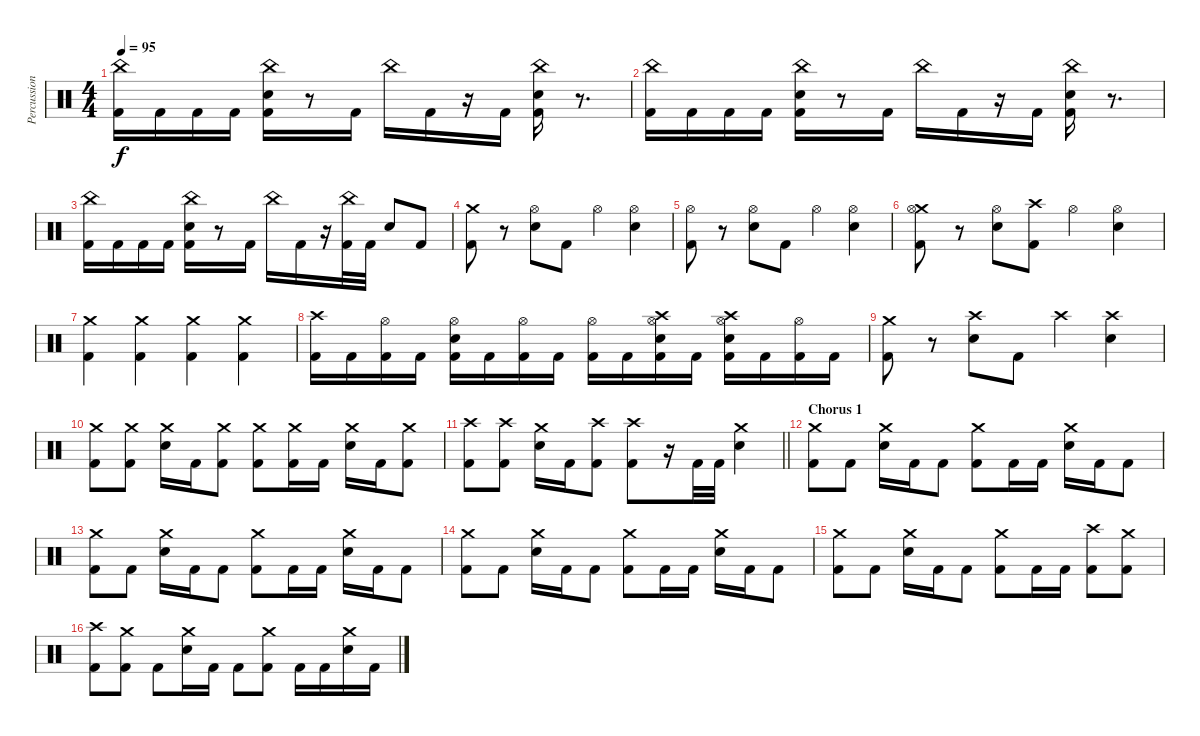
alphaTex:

\track ("Percussion" "Percussion") {instrument percussion}
\staff {score}
\articulation defaults
\ts (4 4)
\tempo 95
\clef neutral
\ks c
("China (hit)" "Kick (hit) 2").16{dy f} "Kick (hit) 2".16 "Kick (hit) 2".16 "Kick (hit) 2".16 ("China (hit)" "Electric Snare (hit)" "Kick (hit) 2").16 r.8 "Kick (hit) 2".16 "China (hit)".16 "Kick (hit) 2".16 r.16 "Kick (hit) 2".16 ("China (hit)" "Electric Snare (hit)" "Kick (hit) 2").16 r.8{d} |
("China (hit)" "Kick (hit) 2").16 "Kick (hit) 2".16 "Kick (hit) 2".16 "Kick (hit) 2".16 ("China (hit)" "Electric Snare (hit)" "Kick (hit) 2").16 r.8 "Kick (hit) 2".16 "China (hit)".16 "Kick (hit) 2".16 r.16 "Kick (hit) 2".16 ("China (hit)" "Electric Snare (hit)" "Kick (hit) 2").16 r.8{d} |
("China (hit)" "Kick (hit) 2").16 "Kick (hit) 2".16 "Kick (hit) 2".16 "Kick (hit) 2".16 ("China (hit)" "Electric Snare (hit)" "Kick (hit) 2").16 r.8 "Kick (hit) 2".16 "China (hit)".16 "Kick (hit) 2".16 r.16 ("China (hit)" "Kick (hit) 2").32 "Kick (hit) 2".32 "Electric Snare (hit)".8 "Kick (hit) 2".8 |
("Crash medium (hit)" "Kick (hit) 2").8 r.8 ("Hi-Hat (open)" "Electric Snare (hit)").8 "Kick (hit) 2".8 "Hi-Hat (open)".4 ("Hi-Hat (open)" "Electric Snare (hit)").4 |
("Hi-Hat (open)" "Kick (hit) 2").8 r.8 ("Hi-Hat (open)" "Electric Snare (hit)").8 "Kick (hit) 2".8 "Hi-Hat (open)".4 ("Hi-Hat (open)" "Electric Snare (hit)").4 |
("Crash medium (hit)" "Hi-Hat (open)" "Kick (hit) 2").8 r.8 ("Hi-Hat (open)" "Electric Snare (hit)").8 ("Crash high (hit)" "Kick (hit) 2").8 "Hi-Hat (open)".4 ("Hi-Hat (open)" "Electric Snare (hit)").4 |
("Crash medium (hit)" "Kick (hit) 2").4 ("Crash medium (hit)" "Kick (hit) 2").4 ("Crash medium (hit)" "Kick (hit) 2").4 ("Crash medium (hit)" "Kick (hit) 2").4 |
("Crash high (hit)" "Kick (hit) 2").16 "Kick (hit) 2".16 ("Hi-Hat (open)" "Kick (hit) 2").16 "Kick (hit) 2".16 ("Hi-Hat (open)" "Electric Snare (hit)" "Kick (hit) 2").16 "Kick (hit) 2".16 ("Hi-Hat (open)" "Kick (hit) 2").16 "Kick (hit) 2".16 ("Hi-Hat (open)" "Kick (hit) 2").16 "Kick (hit) 2".16 ("Crash high (hit)" "Hi-Hat (open)" "Electric Snare (hit)" "Kick (hit) 2").16 "Kick (hit) 2".16 ("Crash high (hit)" "Hi-Hat (open)" "Electric Snare (hit)" "Kick (hit) 2").16 "Kick (hit) 2".16 ("Hi-Hat (open)" "Kick (hit) 2").16 "Kick (hit) 2".16 |
("Crash medium (hit)" "Kick (hit) 2").8 r.8 ("Crash high (hit)" "Electric Snare (hit)").8 "Kick (hit) 2".8 "Crash high (hit)".4 ("Crash high (hit)" "Electric Snare (hit)").4 |
("Crash medium (hit)" "Kick (hit) 2").8 ("Crash medium (hit)" "Kick (hit) 2").8 ("Crash medium (hit)" "Electric Snare (hit)").16 "Kick (hit) 2".16 ("Crash medium (hit)" "Kick (hit) 2").8 ("Crash medium (hit)" "Kick (hit) 2").8 ("Crash medium (hit)" "Kick (hit) 2").16 "Kick (hit) 2".16 ("Crash medium (hit)" "Electric Snare (hit)").16 "Kick (hit) 2".16 ("Crash medium (hit)" "Kick (hit) 2").8 |
\barLineRight lightlight
("Crash high (hit)" "Kick (hit) 2").8 ("Crash high (hit)" "Kick (hit) 2").8 ("Crash medium (hit)" "Electric Snare (hit)").16 "Kick (hit) 2".16 ("Crash high (hit)" "Kick (hit) 2").8 ("Crash high (hit)" "Kick (hit) 2").8 r.16 "Kick (hit) 2".32 "Kick (hit) 2".32 ("Crash medium (hit)" "Electric Snare (hit)").4 |
\section ("" "Chorus 1")
("Crash medium (hit)" "Kick (hit) 2").8 "Kick (hit) 2".8 ("Crash medium (hit)" "Electric Snare (hit)").16 "Kick (hit) 2".16 "Kick (hit) 2".8 ("Crash medium (hit)" "Kick (hit) 2").8 "Kick (hit) 2".16 "Kick (hit) 2".16 ("Crash medium (hit)" "Electric Snare (hit)").16 "Kick (hit) 2".16 "Kick (hit) 2".8 |
("Crash medium (hit)" "Kick (hit) 2").8 "Kick (hit) 2".8 ("Crash medium (hit)" "Electric Snare (hit)").16 "Kick (hit) 2".16 "Kick (hit) 2".8 ("Crash medium (hit)" "Kick (hit) 2").8 "Kick (hit) 2".16 "Kick (hit) 2".16 ("Crash medium (hit)" "Electric Snare (hit)").16 "Kick (hit) 2".16 "Kick (hit) 2".8 |
("Crash medium (hit)" "Kick (hit) 2").8 "Kick (hit) 2".8 ("Crash medium (hit)" "Electric Snare (hit)").16 "Kick (hit) 2".16 "Kick (hit) 2".8 ("Crash medium (hit)" "Kick (hit) 2").8 "Kick (hit) 2".16 "Kick (hit) 2".16 ("Crash medium (hit)" "Electric Snare (hit)").16 "Kick (hit) 2".16 "Kick (hit) 2".8 |
("Crash medium (hit)" "Kick (hit) 2").8 "Kick (hit) 2".8 ("Crash medium (hit)" "Electric Snare (hit)").16 "Kick (hit) 2".16 "Kick (hit) 2".8 ("Crash medium (hit)" "Kick (hit) 2").8 "Kick (hit) 2".16 "Kick (hit) 2".16 ("Crash high (hit)" "Kick (hit) 2").8 ("Crash medium (hit)" "Kick (hit) 2").8 |
("Crash high (hit)" "Kick (hit) 2").8 ("Crash medium (hit)" "Kick (hit) 2").8 "Kick (hit) 2".8 ("Crash medium (hit)" "Electric Snare (hit)").16 "Kick (hit) 2".16 "Kick (hit) 2".8 ("Crash medium (hit)" "Kick (hit) 2").8 "Kick (hit) 2".16 "Kick (hit) 2".16 ("Crash medium (hit)" "Electric Snare (hit)").16 "Kick (hit) 2".16
